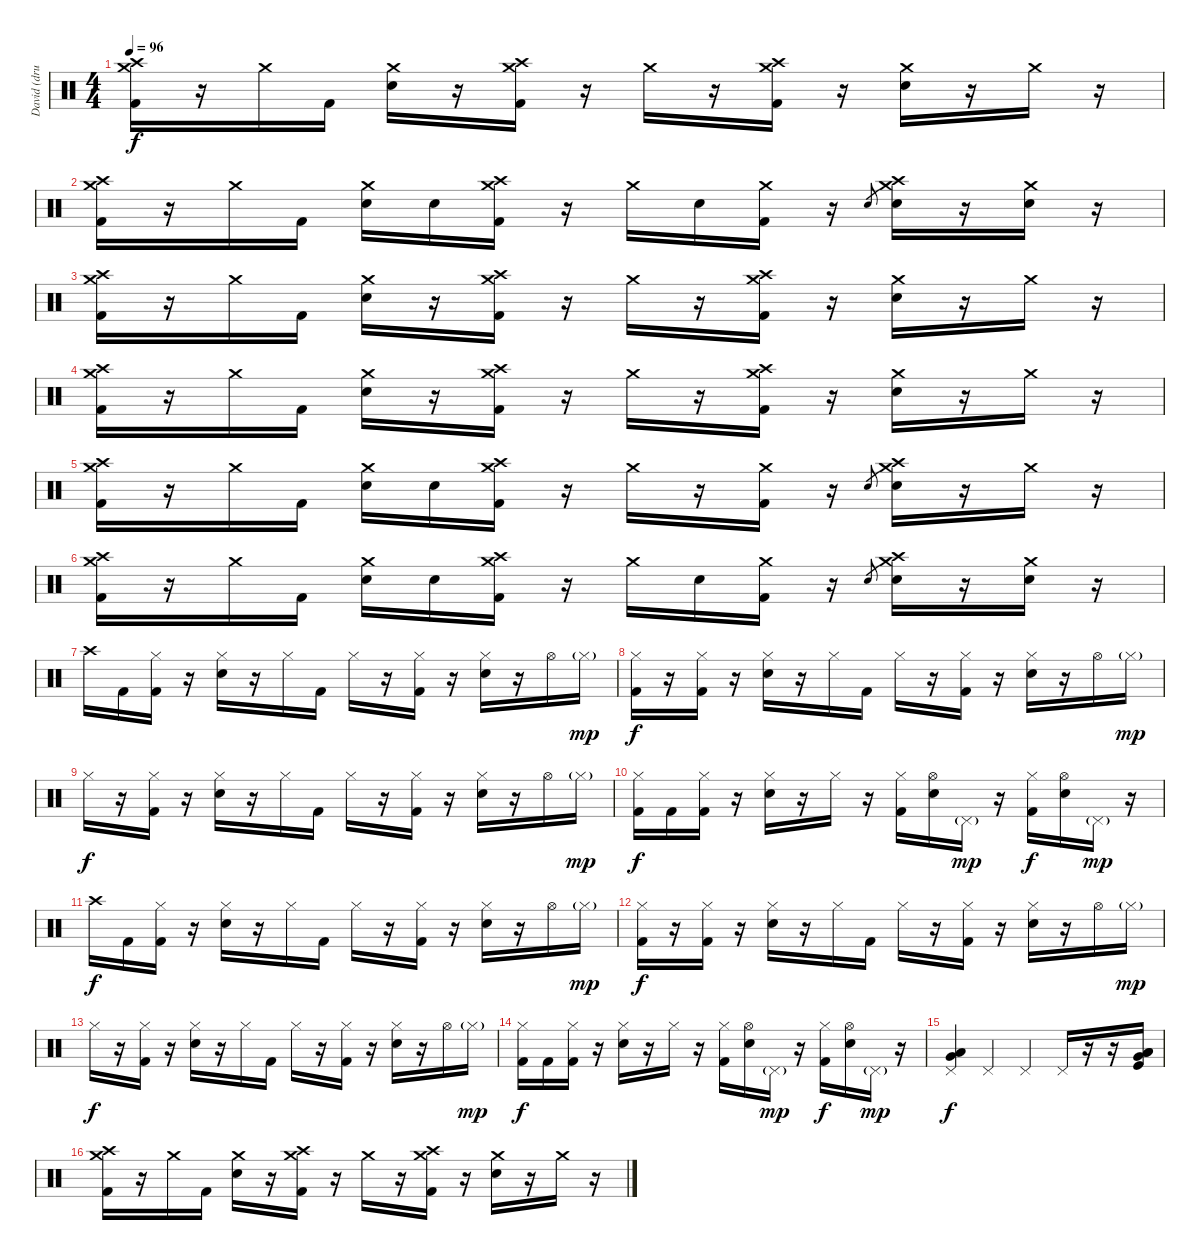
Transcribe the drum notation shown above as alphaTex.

\track ("David (drums)" "David (dru") {instrument percussion}
\staff {score}
\articulation defaults
\ts (4 4)
\tempo 96
\clef neutral
\ks c
("Crash high (hit)" "Crash medium (hit)" "Kick (hit) 2").16{dy f} r.16 "Crash medium (hit)".16 "Kick (hit) 2".16 ("Crash medium (hit)" "Electric Snare (hit)").16 r.16 ("Crash high (hit)" "Crash medium (hit)" "Kick (hit) 2").16 r.16 "Crash medium (hit)".16 r.16 ("Crash high (hit)" "Crash medium (hit)" "Kick (hit) 2").16 r.16 ("Crash medium (hit)" "Electric Snare (hit)").16 r.16 "Crash medium (hit)".16 r.16 |
("Crash high (hit)" "Crash medium (hit)" "Kick (hit) 2").16 r.16 "Crash medium (hit)".16 "Kick (hit) 2".16 ("Crash medium (hit)" "Electric Snare (hit)").16 "Electric Snare (hit)".16 ("Crash high (hit)" "Crash medium (hit)" "Kick (hit) 2").16 r.16 "Crash medium (hit)".16 "Electric Snare (hit)".16 ("Crash medium (hit)" "Kick (hit) 2").16 r.16 "Electric Snare (hit)".8{gr} ("Crash high (hit)" "Crash medium (hit)" "Electric Snare (hit)").16 r.16 ("Crash medium (hit)" "Electric Snare (hit)").16 r.16 |
("Crash high (hit)" "Crash medium (hit)" "Kick (hit) 2").16 r.16 "Crash medium (hit)".16 "Kick (hit) 2".16 ("Crash medium (hit)" "Electric Snare (hit)").16 r.16 ("Crash high (hit)" "Crash medium (hit)" "Kick (hit) 2").16 r.16 "Crash medium (hit)".16 r.16 ("Crash high (hit)" "Crash medium (hit)" "Kick (hit) 2").16 r.16 ("Crash medium (hit)" "Electric Snare (hit)").16 r.16 "Crash medium (hit)".16 r.16 |
("Crash high (hit)" "Crash medium (hit)" "Kick (hit) 2").16 r.16 "Crash medium (hit)".16 "Kick (hit) 2".16 ("Crash medium (hit)" "Electric Snare (hit)").16 r.16 ("Crash high (hit)" "Crash medium (hit)" "Kick (hit) 2").16 r.16 "Crash medium (hit)".16 r.16 ("Crash high (hit)" "Crash medium (hit)" "Kick (hit) 2").16 r.16 ("Crash medium (hit)" "Electric Snare (hit)").16 r.16 "Crash medium (hit)".16 r.16 |
("Crash high (hit)" "Crash medium (hit)" "Kick (hit) 2").16 r.16 "Crash medium (hit)".16 "Kick (hit) 2".16 ("Crash medium (hit)" "Electric Snare (hit)").16 "Electric Snare (hit)".16 ("Crash high (hit)" "Crash medium (hit)" "Kick (hit) 2").16 r.16 "Crash medium (hit)".16 r.16 ("Crash medium (hit)" "Kick (hit) 2").16 r.16 "Electric Snare (hit)".8{gr} ("Crash high (hit)" "Crash medium (hit)" "Electric Snare (hit)").16 r.16 "Crash medium (hit)".16 r.16 |
("Crash high (hit)" "Crash medium (hit)" "Kick (hit) 2").16 r.16 "Crash medium (hit)".16 "Kick (hit) 2".16 ("Crash medium (hit)" "Electric Snare (hit)").16 "Electric Snare (hit)".16 ("Crash high (hit)" "Crash medium (hit)" "Kick (hit) 2").16 r.16 "Crash medium (hit)".16 "Electric Snare (hit)".16 ("Crash medium (hit)" "Kick (hit) 2").16 r.16 "Electric Snare (hit)".8{gr} ("Crash high (hit)" "Crash medium (hit)" "Electric Snare (hit)").16 r.16 ("Crash medium (hit)" "Electric Snare (hit)").16 r.16 |
"Crash high (hit)".16 "Kick (hit) 2".16 ("Hi-Hat (closed)" "Kick (hit) 2").16 r.16 ("Hi-Hat (closed)" "Electric Snare (hit)").16 r.16 "Hi-Hat (closed)".16 "Kick (hit) 2".16 "Hi-Hat (closed)".16 r.16 ("Hi-Hat (closed)" "Kick (hit) 2").16 r.16 ("Hi-Hat (closed)" "Electric Snare (hit)").16 r.16 "Hi-Hat (open)".16 "Hi-Hat (closed)"{g}.16{dy mp} |
("Hi-Hat (closed)" "Kick (hit) 2").16{dy f} r.16 ("Hi-Hat (closed)" "Kick (hit) 2").16 r.16 ("Hi-Hat (closed)" "Electric Snare (hit)").16 r.16 "Hi-Hat (closed)".16 "Kick (hit) 2".16 "Hi-Hat (closed)".16 r.16 ("Hi-Hat (closed)" "Kick (hit) 2").16 r.16 ("Hi-Hat (closed)" "Electric Snare (hit)").16 r.16 "Hi-Hat (open)".16 "Hi-Hat (closed)"{g}.16{dy mp} |
"Hi-Hat (closed)".16{dy f} r.16 ("Hi-Hat (closed)" "Kick (hit) 2").16 r.16 ("Hi-Hat (closed)" "Electric Snare (hit)").16 r.16 "Hi-Hat (closed)".16 "Kick (hit) 2".16 "Hi-Hat (closed)".16 r.16 ("Hi-Hat (closed)" "Kick (hit) 2").16 r.16 ("Hi-Hat (closed)" "Electric Snare (hit)").16 r.16 "Hi-Hat (open)".16 "Hi-Hat (closed)"{g}.16{dy mp} |
("Hi-Hat (closed)" "Kick (hit) 2").16{dy f} "Kick (hit) 2".16 ("Hi-Hat (closed)" "Kick (hit) 2").16 r.16 ("Hi-Hat (closed)" "Electric Snare (hit)").16 r.16 "Hi-Hat (closed)".16 r.16 ("Hi-Hat (closed)" "Kick (hit) 2").16 ("Hi-Hat (open)" "Electric Snare (hit)").16 "Pedal Hi-Hat (hit)"{g}.16{dy mp} r.16 ("Hi-Hat (closed)" "Kick (hit) 2").16{dy f} ("Hi-Hat (open)" "Electric Snare (hit)").16 "Pedal Hi-Hat (hit)"{g}.16{dy mp} r.16 |
"Crash high (hit)".16{dy f} "Kick (hit) 2".16 ("Hi-Hat (closed)" "Kick (hit) 2").16 r.16 ("Hi-Hat (closed)" "Electric Snare (hit)").16 r.16 "Hi-Hat (closed)".16 "Kick (hit) 2".16 "Hi-Hat (closed)".16 r.16 ("Hi-Hat (closed)" "Kick (hit) 2").16 r.16 ("Hi-Hat (closed)" "Electric Snare (hit)").16 r.16 "Hi-Hat (open)".16 "Hi-Hat (closed)"{g}.16{dy mp} |
("Hi-Hat (closed)" "Kick (hit) 2").16{dy f} r.16 ("Hi-Hat (closed)" "Kick (hit) 2").16 r.16 ("Hi-Hat (closed)" "Electric Snare (hit)").16 r.16 "Hi-Hat (closed)".16 "Kick (hit) 2".16 "Hi-Hat (closed)".16 r.16 ("Hi-Hat (closed)" "Kick (hit) 2").16 r.16 ("Hi-Hat (closed)" "Electric Snare (hit)").16 r.16 "Hi-Hat (open)".16 "Hi-Hat (closed)"{g}.16{dy mp} |
"Hi-Hat (closed)".16{dy f} r.16 ("Hi-Hat (closed)" "Kick (hit) 2").16 r.16 ("Hi-Hat (closed)" "Electric Snare (hit)").16 r.16 "Hi-Hat (closed)".16 "Kick (hit) 2".16 "Hi-Hat (closed)".16 r.16 ("Hi-Hat (closed)" "Kick (hit) 2").16 r.16 ("Hi-Hat (closed)" "Electric Snare (hit)").16 r.16 "Hi-Hat (open)".16 "Hi-Hat (closed)"{g}.16{dy mp} |
("Hi-Hat (closed)" "Kick (hit) 2").16{dy f} "Kick (hit) 2".16 ("Hi-Hat (closed)" "Kick (hit) 2").16 r.16 ("Hi-Hat (closed)" "Electric Snare (hit)").16 r.16 "Hi-Hat (closed)".16 r.16 ("Hi-Hat (closed)" "Kick (hit) 2").16 ("Hi-Hat (open)" "Electric Snare (hit)").16 "Pedal Hi-Hat (hit)"{g}.16{dy mp} r.16 ("Hi-Hat (closed)" "Kick (hit) 2").16{dy f} ("Hi-Hat (open)" "Electric Snare (hit)").16 "Pedal Hi-Hat (hit)"{g}.16{dy mp} r.16 |
("Pedal Hi-Hat (hit)" "Very Low Tom (hit)" "Low Floor Tom (hit)").4{dy f} "Pedal Hi-Hat (hit)".4 "Pedal Hi-Hat (hit)".4 "Pedal Hi-Hat (hit)".16 r.16 r.16 ("Very Low Tom (hit)" "Low Floor Tom (hit)" "Low Floor Tom (hit)" "Kick (hit)").16 |
("Crash high (hit)" "Crash medium (hit)" "Kick (hit) 2").16 r.16 "Crash medium (hit)".16 "Kick (hit) 2".16 ("Crash medium (hit)" "Electric Snare (hit)").16 r.16 ("Crash high (hit)" "Crash medium (hit)" "Kick (hit) 2").16 r.16 "Crash medium (hit)".16 r.16 ("Crash high (hit)" "Crash medium (hit)" "Kick (hit) 2").16 r.16 ("Crash medium (hit)" "Electric Snare (hit)").16 r.16 "Crash medium (hit)".16 r.16
